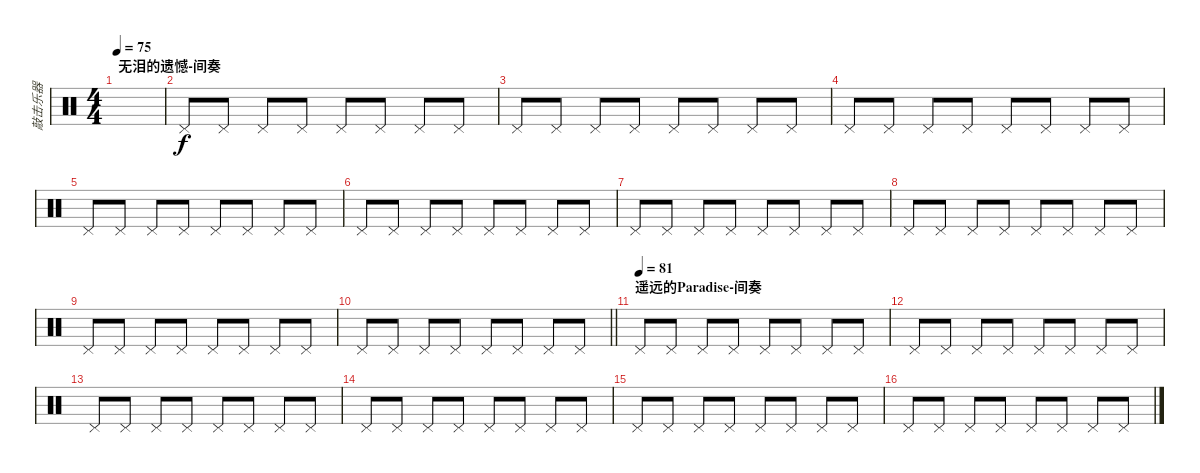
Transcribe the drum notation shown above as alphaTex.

\track ("敲击乐器" "敲击乐器") {instrument percussion}
\staff {score}
\articulation defaults
\ts (4 4)
\section ("" "无泪的遗憾-间奏")
\tempo 75
\clef neutral
\ks c
|
"Pedal Hi-Hat (hit)".8 "Pedal Hi-Hat (hit)".8 "Pedal Hi-Hat (hit)".8 "Pedal Hi-Hat (hit)".8 "Pedal Hi-Hat (hit)".8 "Pedal Hi-Hat (hit)".8 "Pedal Hi-Hat (hit)".8 "Pedal Hi-Hat (hit)".8 |
"Pedal Hi-Hat (hit)".8 "Pedal Hi-Hat (hit)".8 "Pedal Hi-Hat (hit)".8 "Pedal Hi-Hat (hit)".8 "Pedal Hi-Hat (hit)".8 "Pedal Hi-Hat (hit)".8 "Pedal Hi-Hat (hit)".8 "Pedal Hi-Hat (hit)".8 |
"Pedal Hi-Hat (hit)".8 "Pedal Hi-Hat (hit)".8 "Pedal Hi-Hat (hit)".8 "Pedal Hi-Hat (hit)".8 "Pedal Hi-Hat (hit)".8 "Pedal Hi-Hat (hit)".8 "Pedal Hi-Hat (hit)".8 "Pedal Hi-Hat (hit)".8 |
"Pedal Hi-Hat (hit)".8 "Pedal Hi-Hat (hit)".8 "Pedal Hi-Hat (hit)".8 "Pedal Hi-Hat (hit)".8 "Pedal Hi-Hat (hit)".8 "Pedal Hi-Hat (hit)".8 "Pedal Hi-Hat (hit)".8 "Pedal Hi-Hat (hit)".8 |
"Pedal Hi-Hat (hit)".8 "Pedal Hi-Hat (hit)".8 "Pedal Hi-Hat (hit)".8 "Pedal Hi-Hat (hit)".8 "Pedal Hi-Hat (hit)".8 "Pedal Hi-Hat (hit)".8 "Pedal Hi-Hat (hit)".8 "Pedal Hi-Hat (hit)".8 |
"Pedal Hi-Hat (hit)".8 "Pedal Hi-Hat (hit)".8 "Pedal Hi-Hat (hit)".8 "Pedal Hi-Hat (hit)".8 "Pedal Hi-Hat (hit)".8 "Pedal Hi-Hat (hit)".8 "Pedal Hi-Hat (hit)".8 "Pedal Hi-Hat (hit)".8 |
"Pedal Hi-Hat (hit)".8 "Pedal Hi-Hat (hit)".8 "Pedal Hi-Hat (hit)".8 "Pedal Hi-Hat (hit)".8 "Pedal Hi-Hat (hit)".8 "Pedal Hi-Hat (hit)".8 "Pedal Hi-Hat (hit)".8 "Pedal Hi-Hat (hit)".8 |
"Pedal Hi-Hat (hit)".8 "Pedal Hi-Hat (hit)".8 "Pedal Hi-Hat (hit)".8 "Pedal Hi-Hat (hit)".8 "Pedal Hi-Hat (hit)".8 "Pedal Hi-Hat (hit)".8 "Pedal Hi-Hat (hit)".8 "Pedal Hi-Hat (hit)".8 |
\barLineRight lightlight "Pedal Hi-Hat (hit)".8 "Pedal Hi-Hat (hit)".8 "Pedal Hi-Hat (hit)".8 "Pedal Hi-Hat (hit)".8 "Pedal Hi-Hat (hit)".8 "Pedal Hi-Hat (hit)".8 "Pedal Hi-Hat (hit)".8 "Pedal Hi-Hat (hit)".8
|
\section ("" "遥远的Paradise-间奏")
\tempo (81)
"Pedal Hi-Hat (hit)".8 "Pedal Hi-Hat (hit)".8 "Pedal Hi-Hat (hit)".8 "Pedal Hi-Hat (hit)".8 "Pedal Hi-Hat (hit)".8 "Pedal Hi-Hat (hit)".8 "Pedal Hi-Hat (hit)".8 "Pedal Hi-Hat (hit)".8 |
"Pedal Hi-Hat (hit)".8 "Pedal Hi-Hat (hit)".8 "Pedal Hi-Hat (hit)".8 "Pedal Hi-Hat (hit)".8 "Pedal Hi-Hat (hit)".8 "Pedal Hi-Hat (hit)".8 "Pedal Hi-Hat (hit)".8 "Pedal Hi-Hat (hit)".8 |
"Pedal Hi-Hat (hit)".8 "Pedal Hi-Hat (hit)".8 "Pedal Hi-Hat (hit)".8 "Pedal Hi-Hat (hit)".8 "Pedal Hi-Hat (hit)".8 "Pedal Hi-Hat (hit)".8 "Pedal Hi-Hat (hit)".8 "Pedal Hi-Hat (hit)".8 |
"Pedal Hi-Hat (hit)".8 "Pedal Hi-Hat (hit)".8 "Pedal Hi-Hat (hit)".8 "Pedal Hi-Hat (hit)".8 "Pedal Hi-Hat (hit)".8 "Pedal Hi-Hat (hit)".8 "Pedal Hi-Hat (hit)".8 "Pedal Hi-Hat (hit)".8 |
"Pedal Hi-Hat (hit)".8 "Pedal Hi-Hat (hit)".8 "Pedal Hi-Hat (hit)".8 "Pedal Hi-Hat (hit)".8 "Pedal Hi-Hat (hit)".8 "Pedal Hi-Hat (hit)".8 "Pedal Hi-Hat (hit)".8 "Pedal Hi-Hat (hit)".8 |
"Pedal Hi-Hat (hit)".8 "Pedal Hi-Hat (hit)".8 "Pedal Hi-Hat (hit)".8 "Pedal Hi-Hat (hit)".8 "Pedal Hi-Hat (hit)".8 "Pedal Hi-Hat (hit)".8 "Pedal Hi-Hat (hit)".8 "Pedal Hi-Hat (hit)".8
